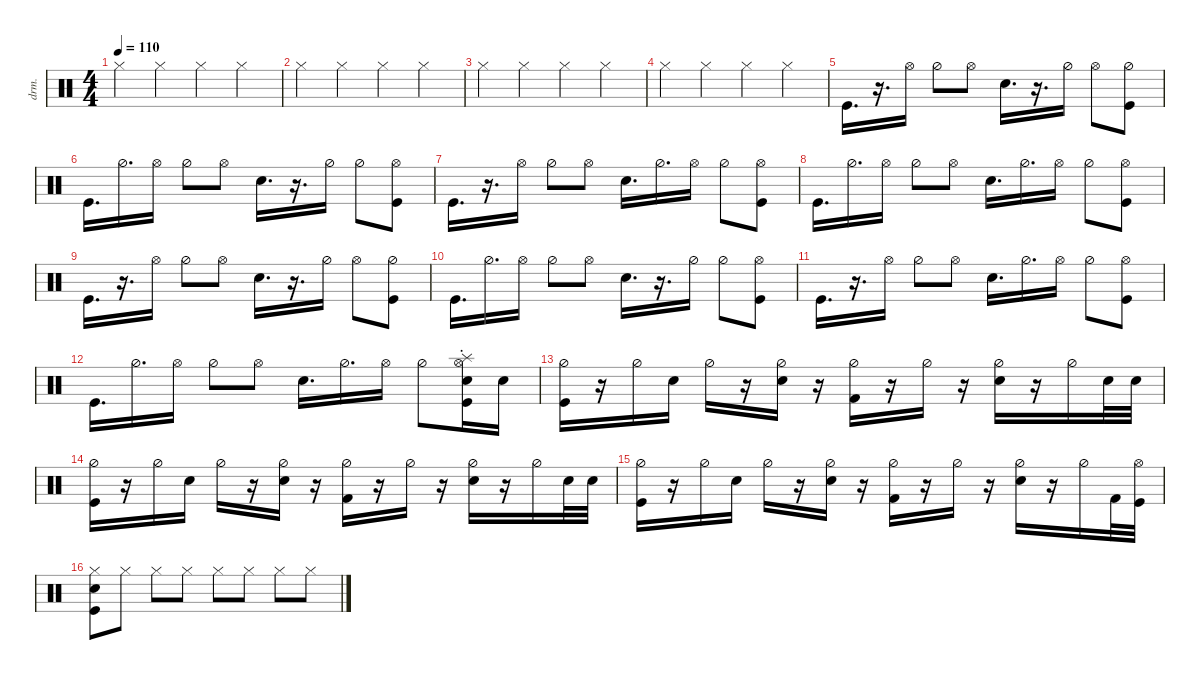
\defaultSystemsLayout 4
\hideDynamics
\bracketExtendMode nobrackets
\otherSystemsTrackNameOrientation horizontal
\track ("Drumkit" "drm.") {instrument percussion}
\staff {score}
\articulation defaults
\ts (4 4)
\tempo 110
\clef neutral
\ks c "Hi-Hat (closed)".4{dy mf beam Down} "Hi-Hat (closed)".4{beam Down} "Hi-Hat (closed)".4{beam Down} "Hi-Hat (closed)".4{beam Down}
|
"Hi-Hat (closed)".4{beam Down} "Hi-Hat (closed)".4{beam Down} "Hi-Hat (closed)".4{beam Down} "Hi-Hat (closed)".4{beam Down} |
"Hi-Hat (closed)".4{beam Down} "Hi-Hat (closed)".4{beam Down} "Hi-Hat (closed)".4{beam Down} "Hi-Hat (closed)".4{beam Down} |
"Hi-Hat (closed)".4{beam Down} "Hi-Hat (closed)".4{beam Down} "Hi-Hat (closed)".4{beam Down} "Hi-Hat (closed)".4{beam Down} |
"Kick (hit)".16{d beam Down} r.16{d beam Down} "Hi-Hat (open)".16{beam Down} "Hi-Hat (half)".8{beam Down} "Hi-Hat (open)".8{beam Down} "Snare (hit) 2".16{d beam Down} r.16{d beam Down} "Hi-Hat (half)".16{beam Down} "Hi-Hat (open)".8{beam Down} ("Hi-Hat (half)" "Kick (hit)").8{beam Down} |
"Kick (hit)".16{d beam Down} "Hi-Hat (half)".16{d beam Down} "Hi-Hat (open)".16{beam Down} "Hi-Hat (half)".8{beam Down} "Hi-Hat (open)".8{beam Down} "Snare (hit) 2".16{d beam Down} r.16{d beam Down} "Hi-Hat (half)".16{beam Down} "Hi-Hat (half)".8{beam Down} ("Hi-Hat (open)" "Kick (hit)").8{beam Down} |
"Kick (hit)".16{d beam Down} r.16{d beam Down} "Hi-Hat (open)".16{beam Down} "Hi-Hat (half)".8{beam Down} "Hi-Hat (open)".8{beam Down} "Snare (hit) 2".16{d beam Down} "Hi-Hat (half)".16{d beam Down} "Hi-Hat (open)".16{beam Down} "Hi-Hat (half)".8{beam Down} ("Hi-Hat (open)" "Kick (hit)").8{beam Down} |
"Kick (hit)".16{d beam Down} "Hi-Hat (half)".16{d beam Down} "Hi-Hat (open)".16{beam Down} "Hi-Hat (half)".8{beam Down} "Hi-Hat (open)".8{beam Down} "Snare (hit) 2".16{d beam Down} "Hi-Hat (half)".16{d beam Down} "Hi-Hat (open)".16{beam Down} "Hi-Hat (half)".8{beam Down} ("Hi-Hat (open)" "Kick (hit)").8{beam Down} |
"Kick (hit)".16{d beam Down} r.16{d beam Down} "Hi-Hat (open)".16{beam Down} "Hi-Hat (half)".8{beam Down} "Hi-Hat (open)".8{beam Down} "Snare (hit) 2".16{d beam Down} r.16{d beam Down} "Hi-Hat (half)".16{beam Down} "Hi-Hat (open)".8{beam Down} ("Hi-Hat (half)" "Kick (hit)").8{beam Down} |
"Kick (hit)".16{d beam Down} "Hi-Hat (half)".16{d beam Down} "Hi-Hat (open)".16{beam Down} "Hi-Hat (half)".8{beam Down} "Hi-Hat (open)".8{beam Down} "Snare (hit) 2".16{d beam Down} r.16{d beam Down} "Hi-Hat (half)".16{beam Down} "Hi-Hat (half)".8{beam Down} ("Hi-Hat (open)" "Kick (hit)").8{beam Down} |
"Kick (hit)".16{d beam Down} r.16{d beam Down} "Hi-Hat (open)".16{beam Down} "Hi-Hat (half)".8{beam Down} "Hi-Hat (open)".8{beam Down} "Snare (hit) 2".16{d beam Down} "Hi-Hat (half)".16{d beam Down} "Hi-Hat (open)".16{beam Down} "Hi-Hat (half)".8{beam Down} ("Hi-Hat (open)" "Kick (hit)").8{beam Down} |
"Kick (hit)".16{d beam Down} "Hi-Hat (half)".16{d beam Down} "Hi-Hat (open)".16{beam Down} "Hi-Hat (half)".8{beam Down} "Hi-Hat (open)".8{beam Down} "Snare (hit) 2".16{d beam Down} "Hi-Hat (half)".16{d beam Down} "Hi-Hat (open)".16{beam Down} "Hi-Hat (half)".8{beam Down} ("Hi-Hat (open)" "Kick (hit)" "Splash (choke)" "Snare (hit) 2").16{beam Down} "Snare (hit) 2".16{beam Down} |
("Hi-Hat (half)" "Kick (hit)").16{beam Down} r.16{beam Down} "Hi-Hat (half)".16{beam Down} "Snare (hit) 2".16{beam Down} "Hi-Hat (half)".16{beam Down} r.16{beam Down} ("Hi-Hat (half)" "Snare (hit) 2").16{beam Down} r.16{beam Down} ("Hi-Hat (half)" "Kick (hit) 2").16{beam Down} r.16{beam Down} "Hi-Hat (half)".16{beam Down} r.16{beam Down} ("Hi-Hat (half)" "Snare (hit) 2").16{beam Down} r.16{beam Down} "Hi-Hat (half)".16{beam Down} "Snare (hit) 2".32{beam Down} "Snare (hit) 2".32{beam Down} |
("Hi-Hat (half)" "Kick (hit)").16{beam Down} r.16{beam Down} "Hi-Hat (half)".16{beam Down} "Snare (hit) 2".16{beam Down} "Hi-Hat (half)".16{beam Down} r.16{beam Down} ("Hi-Hat (half)" "Snare (hit) 2").16{beam Down} r.16{beam Down} ("Hi-Hat (half)" "Kick (hit) 2").16{beam Down} r.16{beam Down} "Hi-Hat (half)".16{beam Down} r.16{beam Down} ("Hi-Hat (half)" "Snare (hit) 2").16{beam Down} r.16{beam Down} "Hi-Hat (half)".16{beam Down} "Snare (hit) 2".32{beam Down} "Snare (hit) 2".32{beam Down} |
("Hi-Hat (half)" "Kick (hit)").16{beam Down} r.16{beam Down} "Hi-Hat (half)".16{beam Down} "Snare (hit) 2".16{beam Down} "Hi-Hat (half)".16{beam Down} r.16{beam Down} ("Hi-Hat (half)" "Snare (hit) 2").16{beam Down} r.16{beam Down} ("Hi-Hat (half)" "Kick (hit) 2").16{beam Down} r.16{beam Down} "Hi-Hat (half)".16{beam Down} r.16{beam Down} ("Hi-Hat (half)" "Snare (hit) 2").16{beam Down} r.16{beam Down} "Hi-Hat (half)".16{beam Down} "Kick (hit) 2".32{beam Down} ("Hi-Hat (open)" "Kick (hit)").32{beam Down} |
("Hi-Hat (closed)" "Snare (hit) 2" "Kick (hit)").8{beam Down} "Hi-Hat (closed)".8{beam Down} "Hi-Hat (closed)".8{beam Down} "Hi-Hat (closed)".8{beam Down} "Hi-Hat (closed)".8{beam Down} "Hi-Hat (closed)".8{beam Down} "Hi-Hat (closed)".8{beam Down} "Hi-Hat (closed)".8{beam Down}
